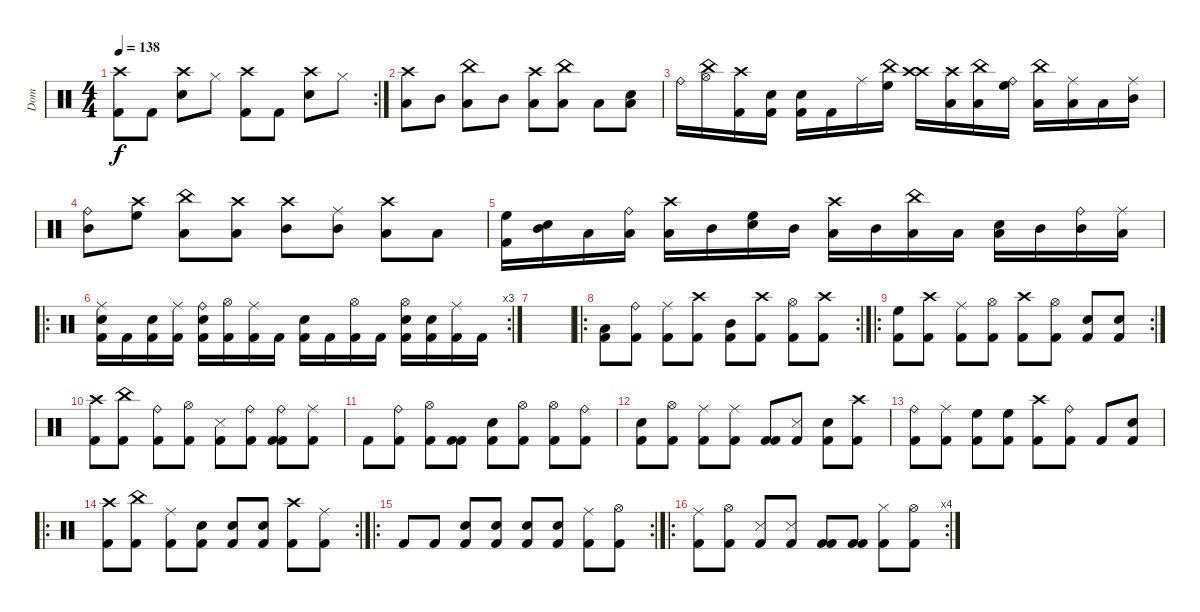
\track ("Dom" "Dom") {instrument percussion}
\staff {score}
\articulation defaults
\rc 2
\ts (4 4)
\tempo 138
\clef neutral
\ks c
("Crash high (hit)" "Kick (hit) 2").8{dy f} "Kick (hit) 2".8 ("Crash high (hit)" "Snare (hit) 2").8 "Hi-Hat (closed)".8 ("Crash high (hit)" "Kick (hit) 2").8 "Kick (hit) 2".8 ("Crash high (hit)" "Snare (hit) 2").8 "Hi-Hat (closed)".8 |
("Crash high (hit)" "Low Tom (hit)").8 "Mid Tom (hit)".8 ("China (hit)" "Low Floor Tom (hit)").8 "Mid Tom (hit)".8 ("Crash high (hit)" "Low Tom (hit)").8 ("China (hit)" "Low Tom (hit)").8 "Low Tom (hit)".8 ("Snare (hit) 2" "Low Floor Tom (hit)").8 |
"Ride (bell)".16 ("China (hit)" "Hi-Hat (open)").16 ("Crash high (hit)" "Kick (hit) 2").16 ("Snare (hit) 2" "Kick (hit) 2").16 ("Snare (hit) 2" "Kick (hit) 2").16 "Kick (hit) 2".16 "Ride (middle)".16 ("China (hit)" "High Floor Tom (hit)").16 ("Crash high (hit)" "Crash high (hit)").16 ("Crash high (hit)" "Low Tom (hit)").16 ("China (hit)" "Low Tom (hit)").16 ("Ride (bell)" "High Floor Tom (hit)").16 ("China (hit)" "Low Tom (hit)").16 ("Ride (middle)" "Low Tom (hit)").16 "Low Floor Tom (hit)".16 ("Ride (middle)" "Mid Tom (hit)").16 |
("Ride (bell)" "Mid Tom (hit)").8 ("Crash high (hit)" "High Floor Tom (hit)").8 ("China (hit)" "Low Tom (hit)").8 ("Crash high (hit)" "Low Tom (hit)").8 ("Crash high (hit)" "Mid Tom (hit)").8 ("Ride (middle)" "Mid Tom (hit)").8 ("Crash high (hit)" "Low Tom (hit)").8 "Low Tom (hit)".8 |
("Kick (hit) 2" "High Floor Tom (hit)").16 ("Snare (hit) 2" "Mid Tom (hit)").16 "Low Tom (hit)".16 ("Ride (bell)" "Low Floor Tom (hit)").16 ("Crash high (hit)" "Low Tom (hit)").16 "Mid Tom (hit)".16 ("Snare (hit) 2" "High Floor Tom (hit)").16 "Mid Tom (hit)".16 ("Crash high (hit)" "Low Tom (hit)").16 "Mid Tom (hit)".16 ("China (hit)" "Low Tom (hit)").16 "Low Floor Tom (hit)".16 ("Snare (hit) 2" "Low Tom (hit)").16 "Mid Tom (hit)".16 ("Ride (bell)" "Mid Tom (hit)").16 ("Ride (middle)" "Low Tom (hit)").16 |
\ro
\rc 3
("Ride (middle)" "Snare (hit) 2" "Kick (hit) 2").16 "Kick (hit) 2".16 ("Snare (hit) 2" "Kick (hit) 2").16 ("Ride (middle)" "Kick (hit) 2").16 ("Ride (bell)" "Snare (hit) 2" "Kick (hit) 2").16 ("Hi-Hat (open)" "Kick (hit) 2").16 ("Ride (middle)" "Kick (hit) 2").16 "Kick (hit) 2".16 ("Snare (hit) 2" "Kick (hit) 2").16 "Kick (hit) 2".16 ("Hi-Hat (open)" "Kick (hit) 2").16 "Kick (hit) 2".16 ("Hi-Hat (open)" "Snare (hit) 2" "Kick (hit) 2").16 ("Snare (hit) 2" "Kick (hit) 2").16 ("Ride (middle)" "Kick (hit) 2").16 "Kick (hit) 2".16 |
|
\ro
\rc 2
("Kick (hit) 2" "Low Tom (hit)").8 ("Kick (hit) 2" "Ride (bell)").8 ("Kick (hit) 2" "Ride (middle)").8 ("Kick (hit) 2" "Crash high (hit)").8 ("Kick (hit) 2" "Mid Tom (hit)").8 ("Kick (hit) 2" "Crash high (hit)").8 ("Kick (hit) 2" "Hi-Hat (open)").8 ("Kick (hit) 2" "Crash high (hit)").8 |
\ro
\rc 2
("Kick (hit) 2" "High Floor Tom (hit)").8 ("Kick (hit) 2" "Crash high (hit)").8 ("Kick (hit) 2" "Ride (middle)").8 ("Kick (hit) 2" "Hi-Hat (open)").8 ("Kick (hit) 2" "Crash high (hit)").8 ("Kick (hit) 2" "Hi-Hat (open)").8 ("Kick (hit) 2" "Snare (hit) 2").8 ("Kick (hit) 2" "Snare (hit) 2").8 |
("Kick (hit) 2" "Crash high (hit)").8 ("Kick (hit) 2" "China (hit)").8 ("Kick (hit) 2" "Ride (bell)").8 ("Kick (hit) 2" "Hi-Hat (open)").8 ("Kick (hit) 2" "Snare (side stick) 3").8 ("Kick (hit) 2" "Ride (bell)").8 ("Kick (hit) 2" "Kick (hit) 2" "Ride (bell)").8 ("Kick (hit) 2" "Ride (middle)").8 |
"Kick (hit) 2".8 ("Kick (hit) 2" "Ride (bell)").8 ("Kick (hit) 2" "Hi-Hat (open)").8 ("Kick (hit) 2" "Kick (hit) 2").8 ("Kick (hit) 2" "Snare (hit) 2").8 ("Kick (hit) 2" "Hi-Hat (open)").8 ("Kick (hit) 2" "Hi-Hat (open)").8 ("Kick (hit) 2" "Ride (bell)").8 |
("Kick (hit) 2" "Snare (hit) 2").8 ("Kick (hit) 2" "Hi-Hat (open)").8 ("Kick (hit) 2" "Ride (middle)").8 ("Kick (hit) 2" "Ride (middle)").8 ("Kick (hit) 2" "Kick (hit) 2").8 ("Kick (hit) 2" "Snare (side stick) 3").8 ("Kick (hit) 2" "Snare (hit) 2").8 ("Kick (hit) 2" "Crash high (hit)").8 |
("Kick (hit) 2" "Ride (bell)").8 ("Kick (hit) 2" "Ride (middle)").8 ("Kick (hit) 2" "High Floor Tom (hit)").8 ("Kick (hit) 2" "High Floor Tom (hit)").8 ("Kick (hit) 2" "Crash high (hit)").8 ("Kick (hit) 2" "Ride (bell)").8 "Kick (hit) 2".8 ("Kick (hit) 2" "Snare (hit) 2").8 |
\ro
\rc 2
("Kick (hit) 2" "Crash high (hit)").8 ("Kick (hit) 2" "China (hit)").8 ("Kick (hit) 2" "Ride (middle)").8 ("Kick (hit) 2" "Snare (hit) 2").8 ("Kick (hit) 2" "Snare (hit) 2").8 ("Kick (hit) 2" "Snare (hit) 2").8 ("Kick (hit) 2" "Crash high (hit)").8 ("Kick (hit) 2" "Ride (middle)").8 |
\ro
\rc 2 "Kick (hit) 2".8 "Kick (hit) 2".8
("Kick (hit) 2" "Snare (hit) 2").8 ("Kick (hit) 2" "Snare (hit) 2").8 ("Kick (hit) 2" "Snare (hit) 2").8 ("Kick (hit) 2" "Snare (hit) 2").8 ("Kick (hit) 2" "Ride (middle)").8 ("Kick (hit) 2" "Hi-Hat (open)").8 |
\ro
\rc 4
("Kick (hit) 2" "Ride (middle)").8 ("Kick (hit) 2" "Hi-Hat (open)").8 ("Kick (hit) 2" "Snare (side stick) 3").8 ("Kick (hit) 2" "Snare (side stick) 3").8 ("Kick (hit) 2" "Kick (hit) 2").8 ("Kick (hit) 2" "Kick (hit) 2").8 ("Kick (hit) 2" "Hi-Hat (closed)").8 ("Kick (hit) 2" "Hi-Hat (open)").8
